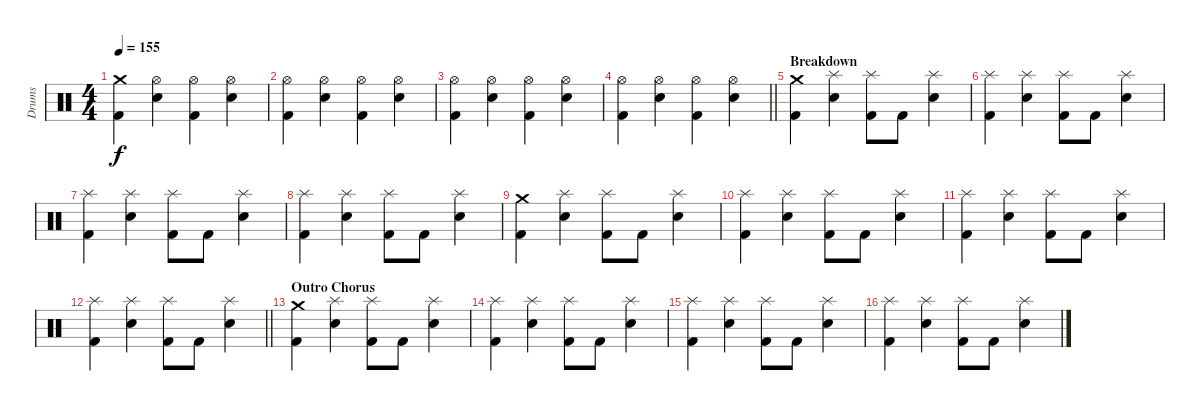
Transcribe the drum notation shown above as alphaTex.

\track ("Drums" "Drums") {instrument percussion}
\staff {score}
\articulation defaults
\ts (4 4)
\tempo 155
\clef neutral
\ks c
("Crash medium (hit)" "Kick (hit) 2").4{dy f} ("Hi-Hat (open)" "Electric Snare (hit)").4 ("Hi-Hat (open)" "Kick (hit) 2").4 ("Hi-Hat (open)" "Electric Snare (hit)").4 |
("Hi-Hat (open)" "Kick (hit) 2").4 ("Hi-Hat (open)" "Electric Snare (hit)").4 ("Hi-Hat (open)" "Kick (hit) 2").4 ("Hi-Hat (open)" "Electric Snare (hit)").4 |
("Kick (hit) 2" "Hi-Hat (open)").4 ("Electric Snare (hit)" "Hi-Hat (open)").4 ("Kick (hit) 2" "Hi-Hat (open)").4 ("Electric Snare (hit)" "Hi-Hat (open)").4 |
\barLineRight lightlight
("Kick (hit) 2" "Hi-Hat (open)").4 ("Electric Snare (hit)" "Hi-Hat (open)").4 ("Kick (hit) 2" "Hi-Hat (open)").4 ("Electric Snare (hit)" "Hi-Hat (open)").4 |
\section ("" "Breakdown")
("Crash medium (hit)" "Kick (hit) 2").4 ("Splash (hit)" "Electric Snare (hit)").4 ("Splash (hit)" "Kick (hit) 2").8 "Kick (hit) 2".8 ("Splash (hit)" "Electric Snare (hit)").4 |
("Splash (hit)" "Kick (hit) 2").4 ("Splash (hit)" "Electric Snare (hit)").4 ("Splash (hit)" "Kick (hit) 2").8 "Kick (hit) 2".8 ("Splash (hit)" "Electric Snare (hit)").4 |
("Splash (hit)" "Kick (hit) 2").4 ("Splash (hit)" "Electric Snare (hit)").4 ("Splash (hit)" "Kick (hit) 2").8 "Kick (hit) 2".8 ("Splash (hit)" "Electric Snare (hit)").4 |
("Splash (hit)" "Kick (hit) 2").4 ("Splash (hit)" "Electric Snare (hit)").4 ("Splash (hit)" "Kick (hit) 2").8 "Kick (hit) 2".8 ("Splash (hit)" "Electric Snare (hit)").4 |
("Crash medium (hit)" "Kick (hit) 2").4 ("Splash (hit)" "Electric Snare (hit)").4 ("Splash (hit)" "Kick (hit) 2").8 "Kick (hit) 2".8 ("Splash (hit)" "Electric Snare (hit)").4 |
("Splash (hit)" "Kick (hit) 2").4 ("Splash (hit)" "Electric Snare (hit)").4 ("Splash (hit)" "Kick (hit) 2").8 "Kick (hit) 2".8 ("Splash (hit)" "Electric Snare (hit)").4 |
("Splash (hit)" "Kick (hit) 2").4 ("Splash (hit)" "Electric Snare (hit)").4 ("Splash (hit)" "Kick (hit) 2").8 "Kick (hit) 2".8 ("Splash (hit)" "Electric Snare (hit)").4 |
\barLineRight lightlight
("Splash (hit)" "Kick (hit) 2").4 ("Splash (hit)" "Electric Snare (hit)").4 ("Splash (hit)" "Kick (hit) 2").8 "Kick (hit) 2".8 ("Splash (hit)" "Electric Snare (hit)").4 |
\section ("" "Outro Chorus")
("Kick (hit) 2" "Crash medium (hit)").4 ("Splash (hit)" "Electric Snare (hit)").4 ("Kick (hit) 2" "Splash (hit)").8 "Kick (hit) 2".8 ("Splash (hit)" "Electric Snare (hit)").4 |
("Kick (hit) 2" "Splash (hit)").4 ("Splash (hit)" "Electric Snare (hit)").4 ("Kick (hit) 2" "Splash (hit)").8 "Kick (hit) 2".8 ("Splash (hit)" "Electric Snare (hit)").4 |
("Kick (hit) 2" "Splash (hit)").4 ("Electric Snare (hit)" "Splash (hit)").4 ("Kick (hit) 2" "Splash (hit)").8 "Kick (hit) 2".8 ("Electric Snare (hit)" "Splash (hit)").4 |
("Kick (hit) 2" "Splash (hit)").4 ("Electric Snare (hit)" "Splash (hit)").4 ("Kick (hit) 2" "Splash (hit)").8 "Kick (hit) 2".8 ("Electric Snare (hit)" "Splash (hit)").4
